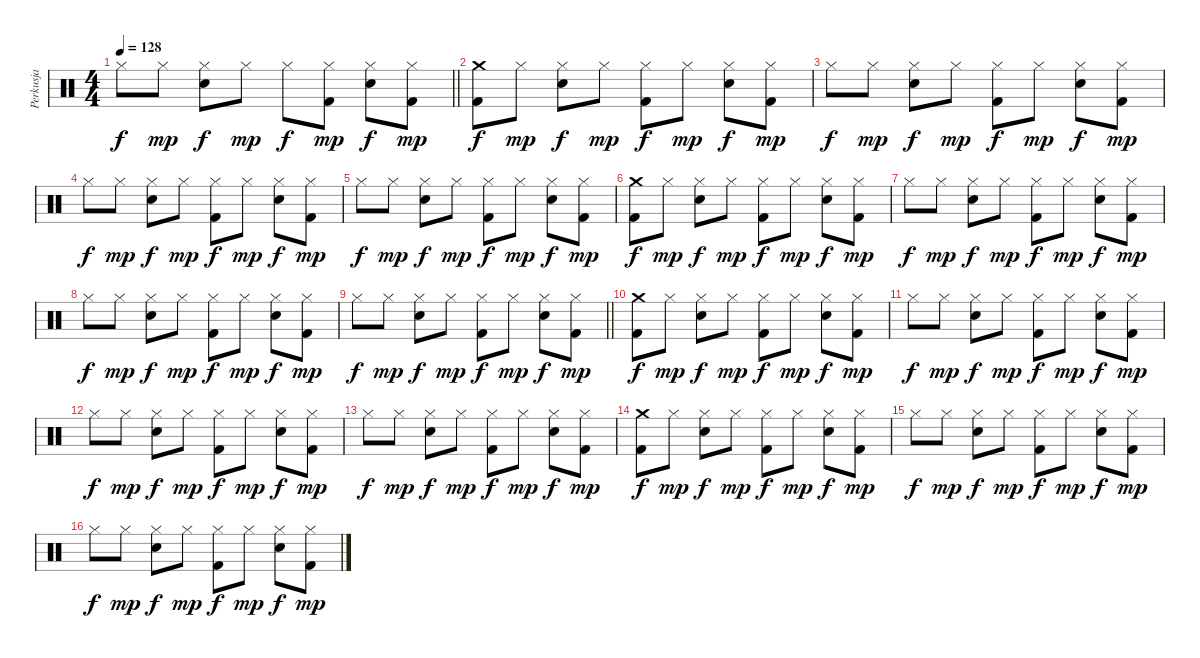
\track ("Perkusja" "Perkusja") {instrument percussion}
\staff {score}
\articulation defaults
\ts (4 4)
\tempo 128
\clef neutral
\barLineRight lightlight
\ks c "Hi-Hat (closed)".8{dy f} "Hi-Hat (closed)".8{dy mp}
("Hi-Hat (closed)" "Electric Snare (hit)").8{dy f} "Hi-Hat (closed)".8{dy mp} "Hi-Hat (closed)".8{dy f} ("Hi-Hat (closed)" "Kick (hit) 2").8{dy mp} ("Hi-Hat (closed)" "Electric Snare (hit)").8{dy f} ("Hi-Hat (closed)" "Kick (hit) 2").8{dy mp} |
("Crash medium (hit)" "Kick (hit) 2").8{dy f} "Hi-Hat (closed)".8{dy mp} ("Hi-Hat (closed)" "Electric Snare (hit)").8{dy f} "Hi-Hat (closed)".8{dy mp} ("Hi-Hat (closed)" "Kick (hit) 2").8{dy f} "Hi-Hat (closed)".8{dy mp} ("Hi-Hat (closed)" "Electric Snare (hit)").8{dy f} ("Hi-Hat (closed)" "Kick (hit) 2").8{dy mp} |
"Hi-Hat (closed)".8{dy f} "Hi-Hat (closed)".8{dy mp} ("Hi-Hat (closed)" "Electric Snare (hit)").8{dy f} "Hi-Hat (closed)".8{dy mp} ("Hi-Hat (closed)" "Kick (hit) 2").8{dy f} "Hi-Hat (closed)".8{dy mp} ("Hi-Hat (closed)" "Electric Snare (hit)").8{dy f} ("Hi-Hat (closed)" "Kick (hit) 2").8{dy mp} |
"Hi-Hat (closed)".8{dy f} "Hi-Hat (closed)".8{dy mp} ("Hi-Hat (closed)" "Electric Snare (hit)").8{dy f} "Hi-Hat (closed)".8{dy mp} ("Hi-Hat (closed)" "Kick (hit) 2").8{dy f} "Hi-Hat (closed)".8{dy mp} ("Hi-Hat (closed)" "Electric Snare (hit)").8{dy f} ("Hi-Hat (closed)" "Kick (hit) 2").8{dy mp} |
"Hi-Hat (closed)".8{dy f} "Hi-Hat (closed)".8{dy mp} ("Hi-Hat (closed)" "Electric Snare (hit)").8{dy f} "Hi-Hat (closed)".8{dy mp} ("Hi-Hat (closed)" "Kick (hit) 2").8{dy f} "Hi-Hat (closed)".8{dy mp} ("Hi-Hat (closed)" "Electric Snare (hit)").8{dy f} ("Hi-Hat (closed)" "Kick (hit) 2").8{dy mp} |
("Crash medium (hit)" "Kick (hit) 2").8{dy f} "Hi-Hat (closed)".8{dy mp} ("Hi-Hat (closed)" "Electric Snare (hit)").8{dy f} "Hi-Hat (closed)".8{dy mp} ("Hi-Hat (closed)" "Kick (hit) 2").8{dy f} "Hi-Hat (closed)".8{dy mp} ("Hi-Hat (closed)" "Electric Snare (hit)").8{dy f} ("Hi-Hat (closed)" "Kick (hit) 2").8{dy mp} |
"Hi-Hat (closed)".8{dy f} "Hi-Hat (closed)".8{dy mp} ("Hi-Hat (closed)" "Electric Snare (hit)").8{dy f} "Hi-Hat (closed)".8{dy mp} ("Hi-Hat (closed)" "Kick (hit) 2").8{dy f} "Hi-Hat (closed)".8{dy mp} ("Hi-Hat (closed)" "Electric Snare (hit)").8{dy f} ("Hi-Hat (closed)" "Kick (hit) 2").8{dy mp} |
"Hi-Hat (closed)".8{dy f} "Hi-Hat (closed)".8{dy mp} ("Hi-Hat (closed)" "Electric Snare (hit)").8{dy f} "Hi-Hat (closed)".8{dy mp} ("Hi-Hat (closed)" "Kick (hit) 2").8{dy f} "Hi-Hat (closed)".8{dy mp} ("Hi-Hat (closed)" "Electric Snare (hit)").8{dy f} ("Hi-Hat (closed)" "Kick (hit) 2").8{dy mp} |
\barLineRight lightlight "Hi-Hat (closed)".8{dy f} "Hi-Hat (closed)".8{dy mp}
("Hi-Hat (closed)" "Electric Snare (hit)").8{dy f} "Hi-Hat (closed)".8{dy mp} ("Hi-Hat (closed)" "Kick (hit) 2").8{dy f} "Hi-Hat (closed)".8{dy mp} ("Hi-Hat (closed)" "Electric Snare (hit)").8{dy f} ("Hi-Hat (closed)" "Kick (hit) 2").8{dy mp} |
("Crash medium (hit)" "Kick (hit) 2").8{dy f} "Hi-Hat (closed)".8{dy mp} ("Hi-Hat (closed)" "Electric Snare (hit)").8{dy f} "Hi-Hat (closed)".8{dy mp} ("Hi-Hat (closed)" "Kick (hit) 2").8{dy f} "Hi-Hat (closed)".8{dy mp} ("Hi-Hat (closed)" "Electric Snare (hit)").8{dy f} ("Hi-Hat (closed)" "Kick (hit) 2").8{dy mp} |
"Hi-Hat (closed)".8{dy f} "Hi-Hat (closed)".8{dy mp} ("Hi-Hat (closed)" "Electric Snare (hit)").8{dy f} "Hi-Hat (closed)".8{dy mp} ("Hi-Hat (closed)" "Kick (hit) 2").8{dy f} "Hi-Hat (closed)".8{dy mp} ("Hi-Hat (closed)" "Electric Snare (hit)").8{dy f} ("Hi-Hat (closed)" "Kick (hit) 2").8{dy mp} |
"Hi-Hat (closed)".8{dy f} "Hi-Hat (closed)".8{dy mp} ("Hi-Hat (closed)" "Electric Snare (hit)").8{dy f} "Hi-Hat (closed)".8{dy mp} ("Hi-Hat (closed)" "Kick (hit) 2").8{dy f} "Hi-Hat (closed)".8{dy mp} ("Hi-Hat (closed)" "Electric Snare (hit)").8{dy f} ("Hi-Hat (closed)" "Kick (hit) 2").8{dy mp} |
"Hi-Hat (closed)".8{dy f} "Hi-Hat (closed)".8{dy mp} ("Hi-Hat (closed)" "Electric Snare (hit)").8{dy f} "Hi-Hat (closed)".8{dy mp} ("Hi-Hat (closed)" "Kick (hit) 2").8{dy f} "Hi-Hat (closed)".8{dy mp} ("Hi-Hat (closed)" "Electric Snare (hit)").8{dy f} ("Hi-Hat (closed)" "Kick (hit) 2").8{dy mp} |
("Crash medium (hit)" "Kick (hit) 2").8{dy f} "Hi-Hat (closed)".8{dy mp} ("Hi-Hat (closed)" "Electric Snare (hit)").8{dy f} "Hi-Hat (closed)".8{dy mp} ("Hi-Hat (closed)" "Kick (hit) 2").8{dy f} "Hi-Hat (closed)".8{dy mp} ("Hi-Hat (closed)" "Electric Snare (hit)").8{dy f} ("Hi-Hat (closed)" "Kick (hit) 2").8{dy mp} |
"Hi-Hat (closed)".8{dy f} "Hi-Hat (closed)".8{dy mp} ("Hi-Hat (closed)" "Electric Snare (hit)").8{dy f} "Hi-Hat (closed)".8{dy mp} ("Hi-Hat (closed)" "Kick (hit) 2").8{dy f} "Hi-Hat (closed)".8{dy mp} ("Hi-Hat (closed)" "Electric Snare (hit)").8{dy f} ("Hi-Hat (closed)" "Kick (hit) 2").8{dy mp} |
"Hi-Hat (closed)".8{dy f} "Hi-Hat (closed)".8{dy mp} ("Hi-Hat (closed)" "Electric Snare (hit)").8{dy f} "Hi-Hat (closed)".8{dy mp} ("Hi-Hat (closed)" "Kick (hit) 2").8{dy f} "Hi-Hat (closed)".8{dy mp} ("Hi-Hat (closed)" "Electric Snare (hit)").8{dy f} ("Hi-Hat (closed)" "Kick (hit) 2").8{dy mp}
